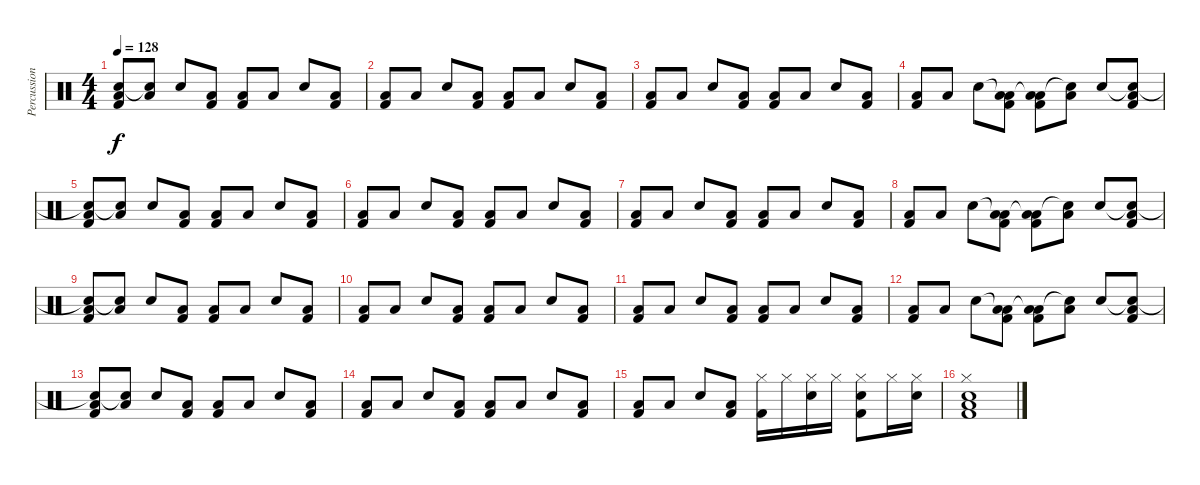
\track ("Percussion" "Percussion") {instrument percussion}
\staff {score}
\articulation defaults
\ts (4 4)
\tempo 128
\clef neutral
\ks c
("Snare (hit)"{t} "Low Floor Tom (hit)" "Kick (hit) 2").8{dy f} ("Snare (hit)"{t} "Low Floor Tom (hit)").8 "Snare (hit) 2".8 ("Low Floor Tom (hit)" "Kick (hit) 2").8 ("Low Floor Tom (hit)" "Kick (hit) 2").8 "Low Floor Tom (hit)".8 "Snare (hit) 2".8 ("Low Floor Tom (hit)" "Kick (hit) 2").8 |
("Low Floor Tom (hit)" "Kick (hit) 2").8 "Low Floor Tom (hit)".8 "Snare (hit) 2".8 ("Low Floor Tom (hit)" "Kick (hit) 2").8 ("Low Floor Tom (hit)" "Kick (hit) 2").8 "Low Floor Tom (hit)".8 "Snare (hit) 2".8 ("Low Floor Tom (hit)" "Kick (hit) 2").8 |
("Low Floor Tom (hit)" "Kick (hit) 2").8 "Low Floor Tom (hit)".8 "Snare (hit) 2".8 ("Low Floor Tom (hit)" "Kick (hit) 2").8 ("Low Floor Tom (hit)" "Kick (hit) 2").8 "Low Floor Tom (hit)".8 "Snare (hit) 2".8 ("Low Floor Tom (hit)" "Kick (hit) 2").8 |
("Low Floor Tom (hit)" "Kick (hit) 2").8 "Low Floor Tom (hit)".8 "Snare (hit) 2".8 ("Low Tom (hit)"{t} "Low Floor Tom (hit)" "Kick (hit) 2").8 ("Low Tom (hit)"{t} "Low Floor Tom (hit)" "Kick (hit) 2").8 ("Snare (hit)"{t} "Low Floor Tom (hit)").8 "Snare (hit) 2".8 ("Snare (hit)"{t} "Low Floor Tom (hit)" "Kick (hit) 2").8 |
("Snare (hit)"{t} "Low Floor Tom (hit)" "Kick (hit) 2").8 ("Snare (hit)"{t} "Low Floor Tom (hit)").8 "Snare (hit) 2".8 ("Low Floor Tom (hit)" "Kick (hit) 2").8 ("Low Floor Tom (hit)" "Kick (hit) 2").8 "Low Floor Tom (hit)".8 "Snare (hit) 2".8 ("Low Floor Tom (hit)" "Kick (hit) 2").8 |
("Low Floor Tom (hit)" "Kick (hit) 2").8 "Low Floor Tom (hit)".8 "Snare (hit) 2".8 ("Low Floor Tom (hit)" "Kick (hit) 2").8 ("Low Floor Tom (hit)" "Kick (hit) 2").8 "Low Floor Tom (hit)".8 "Snare (hit) 2".8 ("Low Floor Tom (hit)" "Kick (hit) 2").8 |
("Low Floor Tom (hit)" "Kick (hit) 2").8 "Low Floor Tom (hit)".8 "Snare (hit) 2".8 ("Low Floor Tom (hit)" "Kick (hit) 2").8 ("Low Floor Tom (hit)" "Kick (hit) 2").8 "Low Floor Tom (hit)".8 "Snare (hit) 2".8 ("Low Floor Tom (hit)" "Kick (hit) 2").8 |
("Low Floor Tom (hit)" "Kick (hit) 2").8 "Low Floor Tom (hit)".8 "Snare (hit) 2".8 ("Low Tom (hit)"{t} "Low Floor Tom (hit)" "Kick (hit) 2").8 ("Low Tom (hit)"{t} "Low Floor Tom (hit)" "Kick (hit) 2").8 ("Snare (hit)"{t} "Low Floor Tom (hit)").8 "Snare (hit) 2".8 ("Snare (hit)"{t} "Low Floor Tom (hit)" "Kick (hit) 2").8 |
("Snare (hit)"{t} "Low Floor Tom (hit)" "Kick (hit) 2").8 ("Snare (hit)"{t} "Low Floor Tom (hit)").8 "Snare (hit) 2".8 ("Low Floor Tom (hit)" "Kick (hit) 2").8 ("Low Floor Tom (hit)" "Kick (hit) 2").8 "Low Floor Tom (hit)".8 "Snare (hit) 2".8 ("Low Floor Tom (hit)" "Kick (hit) 2").8 |
("Low Floor Tom (hit)" "Kick (hit) 2").8 "Low Floor Tom (hit)".8 "Snare (hit) 2".8 ("Low Floor Tom (hit)" "Kick (hit) 2").8 ("Low Floor Tom (hit)" "Kick (hit) 2").8 "Low Floor Tom (hit)".8 "Snare (hit) 2".8 ("Low Floor Tom (hit)" "Kick (hit) 2").8 |
("Low Floor Tom (hit)" "Kick (hit) 2").8 "Low Floor Tom (hit)".8 "Snare (hit) 2".8 ("Low Floor Tom (hit)" "Kick (hit) 2").8 ("Low Floor Tom (hit)" "Kick (hit) 2").8 "Low Floor Tom (hit)".8 "Snare (hit) 2".8 ("Low Floor Tom (hit)" "Kick (hit) 2").8 |
("Low Floor Tom (hit)" "Kick (hit) 2").8 "Low Floor Tom (hit)".8 "Snare (hit) 2".8 ("Low Tom (hit)"{t} "Low Floor Tom (hit)" "Kick (hit) 2").8 ("Low Tom (hit)"{t} "Low Floor Tom (hit)" "Kick (hit) 2").8 ("Snare (hit)"{t} "Low Floor Tom (hit)").8 "Snare (hit) 2".8 ("Snare (hit)"{t} "Low Floor Tom (hit)" "Kick (hit) 2").8 |
("Snare (hit)"{t} "Low Floor Tom (hit)" "Kick (hit) 2").8 ("Snare (hit)"{t} "Low Floor Tom (hit)").8 "Snare (hit) 2".8 ("Low Floor Tom (hit)" "Kick (hit) 2").8 ("Low Floor Tom (hit)" "Kick (hit) 2").8 "Low Floor Tom (hit)".8 "Snare (hit) 2".8 ("Low Floor Tom (hit)" "Kick (hit) 2").8 |
("Low Floor Tom (hit)" "Kick (hit) 2").8 "Low Floor Tom (hit)".8 "Snare (hit) 2".8 ("Low Floor Tom (hit)" "Kick (hit) 2").8 ("Low Floor Tom (hit)" "Kick (hit) 2").8 "Low Floor Tom (hit)".8 "Snare (hit) 2".8 ("Low Floor Tom (hit)" "Kick (hit) 2").8 |
("Low Floor Tom (hit)" "Kick (hit) 2").8 "Low Floor Tom (hit)".8 "Snare (hit) 2".8 ("Low Floor Tom (hit)" "Kick (hit) 2").8 ("Hi-Hat (closed)" "Kick (hit) 2").16 "Hi-Hat (closed)".16 ("Hi-Hat (closed)" "Snare (hit) 2").16 "Hi-Hat (closed)".16 ("Hi-Hat (closed)" "Snare (hit) 2" "Kick (hit) 2").8 "Hi-Hat (closed)".16 ("Hi-Hat (closed)" "Snare (hit) 2").16 |
("Hi-Hat (closed)" "Low Floor Tom (hit)" "Snare (hit) 2" "Kick (hit) 2").1
